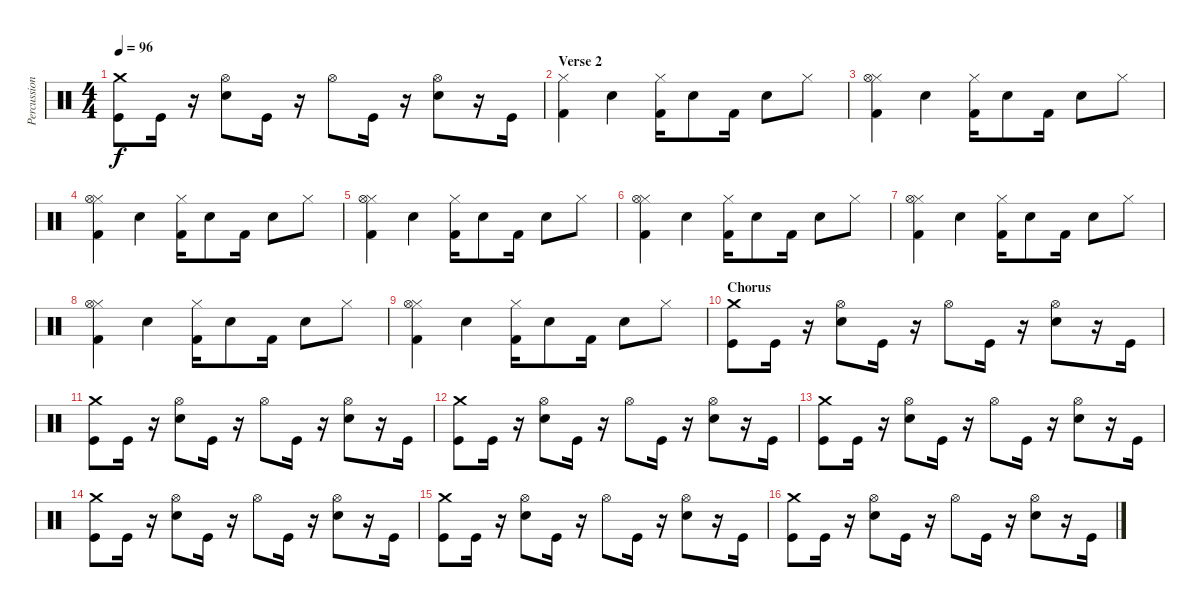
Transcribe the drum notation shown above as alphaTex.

\track ("Percussion" "Percussion") {instrument percussion}
\staff {score}
\articulation defaults
\ts (4 4)
\tempo 96
\clef neutral
\ks c
("Crash medium (hit)" "Kick (hit)").8{dy f} "Kick (hit)".16 r.16 ("Hi-Hat (open)" "Electric Snare (hit)").8 "Kick (hit)".16 r.16 "Hi-Hat (open)".8 "Kick (hit)".16 r.16 ("Hi-Hat (open)" "Electric Snare (hit)").8 r.16 "Kick (hit)".16 |
\section ("" "Verse 2")
("Hi-Hat (closed)" "Kick (hit) 2").4 "Electric Snare (hit)".4 ("Hi-Hat (closed)" "Kick (hit) 2").16 "Electric Snare (hit)".8 "Kick (hit) 2".16 "Electric Snare (hit)".8 "Hi-Hat (closed)".8 |
("Hi-Hat (closed)" "Hi-Hat (open)" "Kick (hit) 2").4 "Electric Snare (hit)".4 ("Hi-Hat (closed)" "Kick (hit) 2").16 "Electric Snare (hit)".8 "Kick (hit) 2".16 "Electric Snare (hit)".8 "Hi-Hat (closed)".8 |
("Hi-Hat (closed)" "Hi-Hat (open)" "Kick (hit) 2").4 "Electric Snare (hit)".4 ("Hi-Hat (closed)" "Kick (hit) 2").16 "Electric Snare (hit)".8 "Kick (hit) 2".16 "Electric Snare (hit)".8 "Hi-Hat (closed)".8 |
("Hi-Hat (closed)" "Hi-Hat (open)" "Kick (hit) 2").4 "Electric Snare (hit)".4 ("Hi-Hat (closed)" "Kick (hit) 2").16 "Electric Snare (hit)".8 "Kick (hit) 2".16 "Electric Snare (hit)".8 "Hi-Hat (closed)".8 |
("Hi-Hat (closed)" "Hi-Hat (open)" "Kick (hit) 2").4 "Electric Snare (hit)".4 ("Hi-Hat (closed)" "Kick (hit) 2").16 "Electric Snare (hit)".8 "Kick (hit) 2".16 "Electric Snare (hit)".8 "Hi-Hat (closed)".8 |
("Hi-Hat (closed)" "Hi-Hat (open)" "Kick (hit) 2").4 "Electric Snare (hit)".4 ("Hi-Hat (closed)" "Kick (hit) 2").16 "Electric Snare (hit)".8 "Kick (hit) 2".16 "Electric Snare (hit)".8 "Hi-Hat (closed)".8 |
("Hi-Hat (closed)" "Hi-Hat (open)" "Kick (hit) 2").4 "Electric Snare (hit)".4 ("Hi-Hat (closed)" "Kick (hit) 2").16 "Electric Snare (hit)".8 "Kick (hit) 2".16 "Electric Snare (hit)".8 "Hi-Hat (closed)".8 |
("Hi-Hat (closed)" "Hi-Hat (open)" "Kick (hit) 2").4 "Electric Snare (hit)".4 ("Hi-Hat (closed)" "Kick (hit) 2").16 "Electric Snare (hit)".8 "Kick (hit) 2".16 "Electric Snare (hit)".8 "Hi-Hat (closed)".8 |
\section ("" "Chorus")
("Crash medium (hit)" "Kick (hit)").8 "Kick (hit)".16 r.16 ("Hi-Hat (open)" "Electric Snare (hit)").8 "Kick (hit)".16 r.16 "Hi-Hat (open)".8 "Kick (hit)".16 r.16 ("Hi-Hat (open)" "Electric Snare (hit)").8 r.16 "Kick (hit)".16 |
("Crash medium (hit)" "Kick (hit)").8 "Kick (hit)".16 r.16 ("Hi-Hat (open)" "Electric Snare (hit)").8 "Kick (hit)".16 r.16 "Hi-Hat (open)".8 "Kick (hit)".16 r.16 ("Hi-Hat (open)" "Electric Snare (hit)").8 r.16 "Kick (hit)".16 |
("Crash medium (hit)" "Kick (hit)").8 "Kick (hit)".16 r.16 ("Hi-Hat (open)" "Electric Snare (hit)").8 "Kick (hit)".16 r.16 "Hi-Hat (open)".8 "Kick (hit)".16 r.16 ("Hi-Hat (open)" "Electric Snare (hit)").8 r.16 "Kick (hit)".16 |
("Crash medium (hit)" "Kick (hit)").8 "Kick (hit)".16 r.16 ("Hi-Hat (open)" "Electric Snare (hit)").8 "Kick (hit)".16 r.16 "Hi-Hat (open)".8 "Kick (hit)".16 r.16 ("Hi-Hat (open)" "Electric Snare (hit)").8 r.16 "Kick (hit)".16 |
("Crash medium (hit)" "Kick (hit)").8 "Kick (hit)".16 r.16 ("Hi-Hat (open)" "Electric Snare (hit)").8 "Kick (hit)".16 r.16 "Hi-Hat (open)".8 "Kick (hit)".16 r.16 ("Hi-Hat (open)" "Electric Snare (hit)").8 r.16 "Kick (hit)".16 |
("Crash medium (hit)" "Kick (hit)").8 "Kick (hit)".16 r.16 ("Hi-Hat (open)" "Electric Snare (hit)").8 "Kick (hit)".16 r.16 "Hi-Hat (open)".8 "Kick (hit)".16 r.16 ("Hi-Hat (open)" "Electric Snare (hit)").8 r.16 "Kick (hit)".16 |
("Crash medium (hit)" "Kick (hit)").8 "Kick (hit)".16 r.16 ("Hi-Hat (open)" "Electric Snare (hit)").8 "Kick (hit)".16 r.16 "Hi-Hat (open)".8 "Kick (hit)".16 r.16 ("Hi-Hat (open)" "Electric Snare (hit)").8 r.16 "Kick (hit)".16
